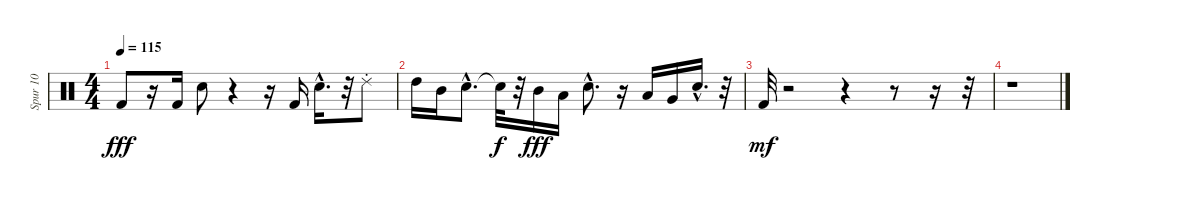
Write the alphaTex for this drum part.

\track ("Spur 10" "Spur 10") {instrument percussion}
\staff {score}
\articulation defaults
\ts (4 4)
\tempo 115
\clef neutral
\ks c "Kick (hit) 2".8{dy fff}
r.16 "Kick (hit) 2".16 "Metronome (bell)".8 r.4 r.16 "Kick (hit) 2".16 "Metronome (bell)"{hac}.16{d} r.32 "Ride (choke) 2".8 |
"High Tom (hit)".16 "Mid Tom (hit)".16 "Metronome (bell)"{hac}.8{d} "Snare (hit)"{t}.32{dy f} r.32 "Mid Tom (hit)".16{dy fff} "Low Tom (hit)".16 "Metronome (bell)"{hac}.8{d} r.16 "Low Tom (hit)".16 "Very Low Tom (hit)".16 "Metronome (bell)"{hac}.16{d} r.32 |
"Kick (hit) 2".32{dy mf volume 13} r.2 r.4 r.8 r.16 r.32 |
r.1
